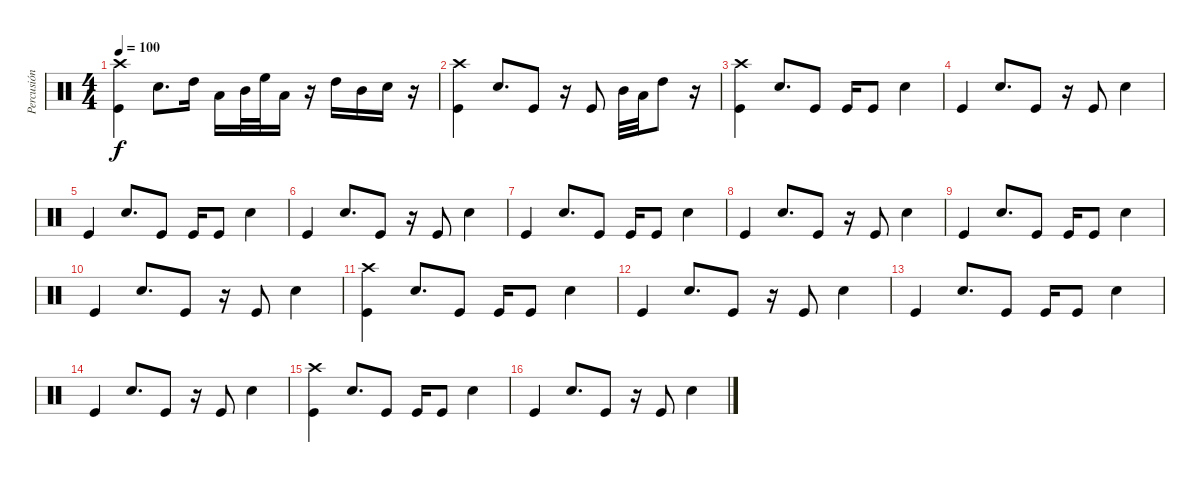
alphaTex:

\track ("Percusión" "Percusión") {instrument percussion}
\staff {score}
\articulation defaults
\ts (4 4)
\tempo 100
\clef neutral
\ks c
("Kick (hit)" "Crash high (hit)").4{dy f} "Snare (hit) 2".8{d} "High Tom (hit)".16 "Low Floor Tom (hit)".16 "Mid Tom (hit)".32 "High Floor Tom (hit)".32 "Low Floor Tom (hit)".16 r.16 "High Tom (hit)".16 "Mid Tom (hit)".16 "Snare (hit) 2".16 r.16 |
("Kick (hit)" "Crash high (hit)").4 "Snare (hit) 2".8{d} "Kick (hit)".8 r.16 "Kick (hit)".8 "Mid Tom (hit)".32 "Low Tom (hit)".32 "High Tom (hit)".8 r.16 |
("Crash high (hit)" "Kick (hit)").4 "Snare (hit) 2".8{d} "Kick (hit)".8 "Kick (hit)".16 "Kick (hit)".8 "Snare (hit) 2".4 |
"Kick (hit)".4 "Snare (hit) 2".8{d} "Kick (hit)".8 r.16 "Kick (hit)".8 "Snare (hit) 2".4 |
"Kick (hit)".4 "Snare (hit) 2".8{d} "Kick (hit)".8 "Kick (hit)".16 "Kick (hit)".8 "Snare (hit) 2".4 |
"Kick (hit)".4 "Snare (hit) 2".8{d} "Kick (hit)".8 r.16 "Kick (hit)".8 "Snare (hit) 2".4 |
"Kick (hit)".4 "Snare (hit) 2".8{d} "Kick (hit)".8 "Kick (hit)".16 "Kick (hit)".8 "Snare (hit) 2".4 |
"Kick (hit)".4 "Snare (hit) 2".8{d} "Kick (hit)".8 r.16 "Kick (hit)".8 "Snare (hit) 2".4 |
"Kick (hit)".4 "Snare (hit) 2".8{d} "Kick (hit)".8 "Kick (hit)".16 "Kick (hit)".8 "Snare (hit) 2".4 |
"Kick (hit)".4 "Snare (hit) 2".8{d} "Kick (hit)".8 r.16 "Kick (hit)".8 "Snare (hit) 2".4 |
("Crash high (hit)" "Kick (hit)").4 "Snare (hit) 2".8{d} "Kick (hit)".8 "Kick (hit)".16 "Kick (hit)".8 "Snare (hit) 2".4 |
"Kick (hit)".4 "Snare (hit) 2".8{d} "Kick (hit)".8 r.16 "Kick (hit)".8 "Snare (hit) 2".4 |
"Kick (hit)".4 "Snare (hit) 2".8{d} "Kick (hit)".8 "Kick (hit)".16 "Kick (hit)".8 "Snare (hit) 2".4 |
"Kick (hit)".4 "Snare (hit) 2".8{d} "Kick (hit)".8 r.16 "Kick (hit)".8 "Snare (hit) 2".4 |
("Crash high (hit)" "Kick (hit)").4 "Snare (hit) 2".8{d} "Kick (hit)".8 "Kick (hit)".16 "Kick (hit)".8 "Snare (hit) 2".4 |
"Kick (hit)".4 "Snare (hit) 2".8{d} "Kick (hit)".8 r.16 "Kick (hit)".8 "Snare (hit) 2".4
